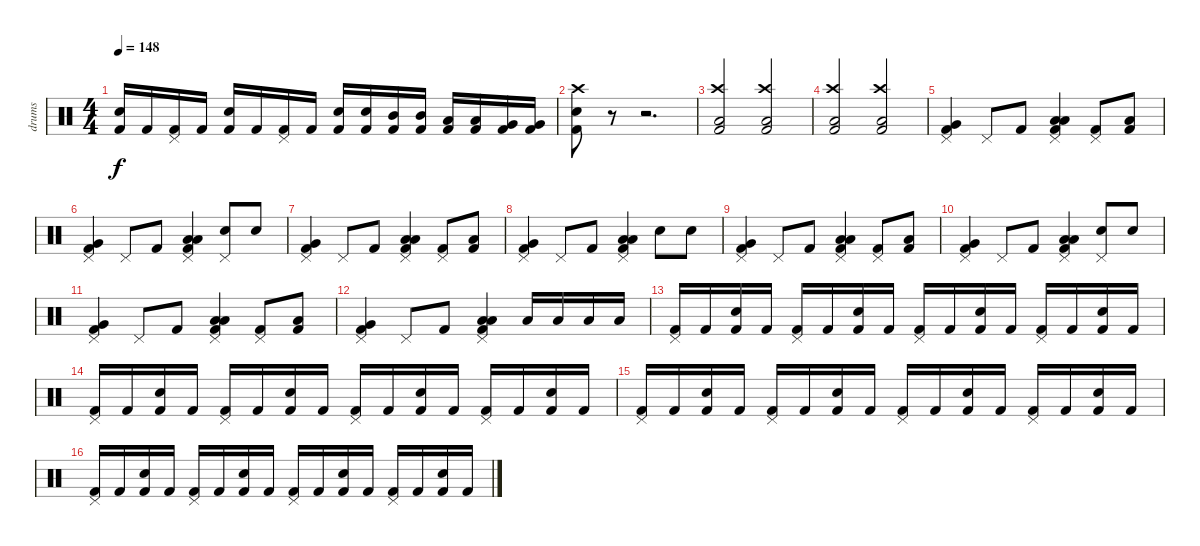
\track ("drums" "drums") {instrument percussion}
\staff {score}
\articulation defaults
\ts (4 4)
\tempo 148
\clef neutral
\ks c
("Snare (hit) 2" "Kick (hit) 2").16{dy f} "Kick (hit) 2".16 ("Pedal Hi-Hat (hit)" "Kick (hit) 2").16 "Kick (hit) 2".16 ("Electric Snare (hit)" "Kick (hit) 2").16 "Kick (hit) 2".16 ("Pedal Hi-Hat (hit)" "Kick (hit) 2").16 "Kick (hit) 2".16 ("Snare (hit) 2" "Kick (hit) 2").16 ("Snare (hit) 2" "Kick (hit) 2").16 ("Mid Tom (hit)" "Kick (hit) 2").16 ("Mid Tom (hit)" "Kick (hit) 2").16 ("Low Tom (hit)" "Kick (hit) 2").16 ("Low Tom (hit)" "Kick (hit) 2").16 ("Very Low Tom (hit)" "Kick (hit) 2").16 ("Very Low Tom (hit)" "Kick (hit) 2").16 |
("Crash high (hit)" "Electric Snare (hit)" "Kick (hit) 2").8 r.8 r.2{d} |
("Crash high (hit)" "Low Floor Tom (hit)" "Kick (hit) 2").2 ("Crash high (hit)" "Low Floor Tom (hit)" "Kick (hit) 2").2 |
("Crash high (hit)" "Low Floor Tom (hit)" "Kick (hit) 2").2 ("Crash high (hit)" "Low Floor Tom (hit)" "Kick (hit) 2").2 |
("Pedal Hi-Hat (hit)" "Very Low Tom (hit)" "Kick (hit) 2").4 "Pedal Hi-Hat (hit)".8 "Kick (hit) 2".8 ("Pedal Hi-Hat (hit)" "Low Floor Tom (hit)" "Low Floor Tom (hit)" "Kick (hit) 2").4 ("Pedal Hi-Hat (hit)" "Kick (hit) 2").8 ("Low Floor Tom (hit)" "Kick (hit) 2").8 |
("Pedal Hi-Hat (hit)" "Very Low Tom (hit)" "Kick (hit) 2").4 "Pedal Hi-Hat (hit)".8 "Kick (hit) 2".8 ("Pedal Hi-Hat (hit)" "Low Floor Tom (hit)" "Low Floor Tom (hit)" "Kick (hit) 2").4 ("Pedal Hi-Hat (hit)" "Electric Snare (hit)").8 "Electric Snare (hit)".8 |
("Pedal Hi-Hat (hit)" "Very Low Tom (hit)" "Kick (hit) 2").4 "Pedal Hi-Hat (hit)".8 "Kick (hit) 2".8 ("Pedal Hi-Hat (hit)" "Low Floor Tom (hit)" "Low Floor Tom (hit)" "Kick (hit) 2").4 ("Pedal Hi-Hat (hit)" "Kick (hit) 2").8 ("Low Floor Tom (hit)" "Kick (hit) 2").8 |
("Pedal Hi-Hat (hit)" "Very Low Tom (hit)" "Kick (hit) 2").4 "Pedal Hi-Hat (hit)".8 "Kick (hit) 2".8 ("Pedal Hi-Hat (hit)" "Low Floor Tom (hit)" "Low Floor Tom (hit)" "Kick (hit) 2").4 "Electric Snare (hit)".8 "Electric Snare (hit)".8 |
("Pedal Hi-Hat (hit)" "Very Low Tom (hit)" "Kick (hit) 2").4 "Pedal Hi-Hat (hit)".8 "Kick (hit) 2".8 ("Pedal Hi-Hat (hit)" "Low Floor Tom (hit)" "Low Floor Tom (hit)" "Kick (hit) 2").4 ("Pedal Hi-Hat (hit)" "Kick (hit) 2").8 ("Low Floor Tom (hit)" "Kick (hit) 2").8 |
("Pedal Hi-Hat (hit)" "Very Low Tom (hit)" "Kick (hit) 2").4 "Pedal Hi-Hat (hit)".8 "Kick (hit) 2".8 ("Pedal Hi-Hat (hit)" "Low Floor Tom (hit)" "Low Floor Tom (hit)" "Kick (hit) 2").4 ("Pedal Hi-Hat (hit)" "Electric Snare (hit)").8 "Electric Snare (hit)".8 |
("Pedal Hi-Hat (hit)" "Very Low Tom (hit)" "Kick (hit) 2").4 "Pedal Hi-Hat (hit)".8 "Kick (hit) 2".8 ("Pedal Hi-Hat (hit)" "Low Floor Tom (hit)" "Low Floor Tom (hit)" "Kick (hit) 2").4 ("Pedal Hi-Hat (hit)" "Kick (hit) 2").8 ("Low Floor Tom (hit)" "Kick (hit) 2").8 |
("Pedal Hi-Hat (hit)" "Very Low Tom (hit)" "Kick (hit) 2").4 "Pedal Hi-Hat (hit)".8 "Kick (hit) 2".8 ("Pedal Hi-Hat (hit)" "Low Floor Tom (hit)" "Low Floor Tom (hit)" "Kick (hit) 2").4 "Low Tom (hit)".16 "Low Tom (hit)".16 "Low Tom (hit)".16 "Low Tom (hit)".16 |
("Pedal Hi-Hat (hit)" "Kick (hit) 2").16 "Kick (hit) 2".16 ("Electric Snare (hit)" "Kick (hit) 2").16 "Kick (hit) 2".16 ("Pedal Hi-Hat (hit)" "Kick (hit) 2").16 "Kick (hit) 2".16 ("Electric Snare (hit)" "Kick (hit) 2").16 "Kick (hit) 2".16 ("Pedal Hi-Hat (hit)" "Kick (hit) 2").16 "Kick (hit) 2".16 ("Electric Snare (hit)" "Kick (hit) 2").16 "Kick (hit) 2".16 ("Pedal Hi-Hat (hit)" "Kick (hit) 2").16 "Kick (hit) 2".16 ("Electric Snare (hit)" "Kick (hit) 2").16 "Kick (hit) 2".16 |
("Pedal Hi-Hat (hit)" "Kick (hit) 2").16 "Kick (hit) 2".16 ("Electric Snare (hit)" "Kick (hit) 2").16 "Kick (hit) 2".16 ("Pedal Hi-Hat (hit)" "Kick (hit) 2").16 "Kick (hit) 2".16 ("Electric Snare (hit)" "Kick (hit) 2").16 "Kick (hit) 2".16 ("Pedal Hi-Hat (hit)" "Kick (hit) 2").16 "Kick (hit) 2".16 ("Electric Snare (hit)" "Kick (hit) 2").16 "Kick (hit) 2".16 ("Pedal Hi-Hat (hit)" "Kick (hit) 2").16 "Kick (hit) 2".16 ("Electric Snare (hit)" "Kick (hit) 2").16 "Kick (hit) 2".16 |
("Pedal Hi-Hat (hit)" "Kick (hit) 2").16 "Kick (hit) 2".16 ("Electric Snare (hit)" "Kick (hit) 2").16 "Kick (hit) 2".16 ("Pedal Hi-Hat (hit)" "Kick (hit) 2").16 "Kick (hit) 2".16 ("Electric Snare (hit)" "Kick (hit) 2").16 "Kick (hit) 2".16 ("Pedal Hi-Hat (hit)" "Kick (hit) 2").16 "Kick (hit) 2".16 ("Electric Snare (hit)" "Kick (hit) 2").16 "Kick (hit) 2".16 ("Pedal Hi-Hat (hit)" "Kick (hit) 2").16 "Kick (hit) 2".16 ("Electric Snare (hit)" "Kick (hit) 2").16 "Kick (hit) 2".16 |
("Pedal Hi-Hat (hit)" "Kick (hit) 2").16 "Kick (hit) 2".16 ("Electric Snare (hit)" "Kick (hit) 2").16 "Kick (hit) 2".16 ("Pedal Hi-Hat (hit)" "Kick (hit) 2").16 "Kick (hit) 2".16 ("Electric Snare (hit)" "Kick (hit) 2").16 "Kick (hit) 2".16 ("Pedal Hi-Hat (hit)" "Kick (hit) 2").16 "Kick (hit) 2".16 ("Electric Snare (hit)" "Kick (hit) 2").16 "Kick (hit) 2".16 ("Pedal Hi-Hat (hit)" "Kick (hit) 2").16 "Kick (hit) 2".16 ("Electric Snare (hit)" "Kick (hit) 2").16 "Kick (hit) 2".16
